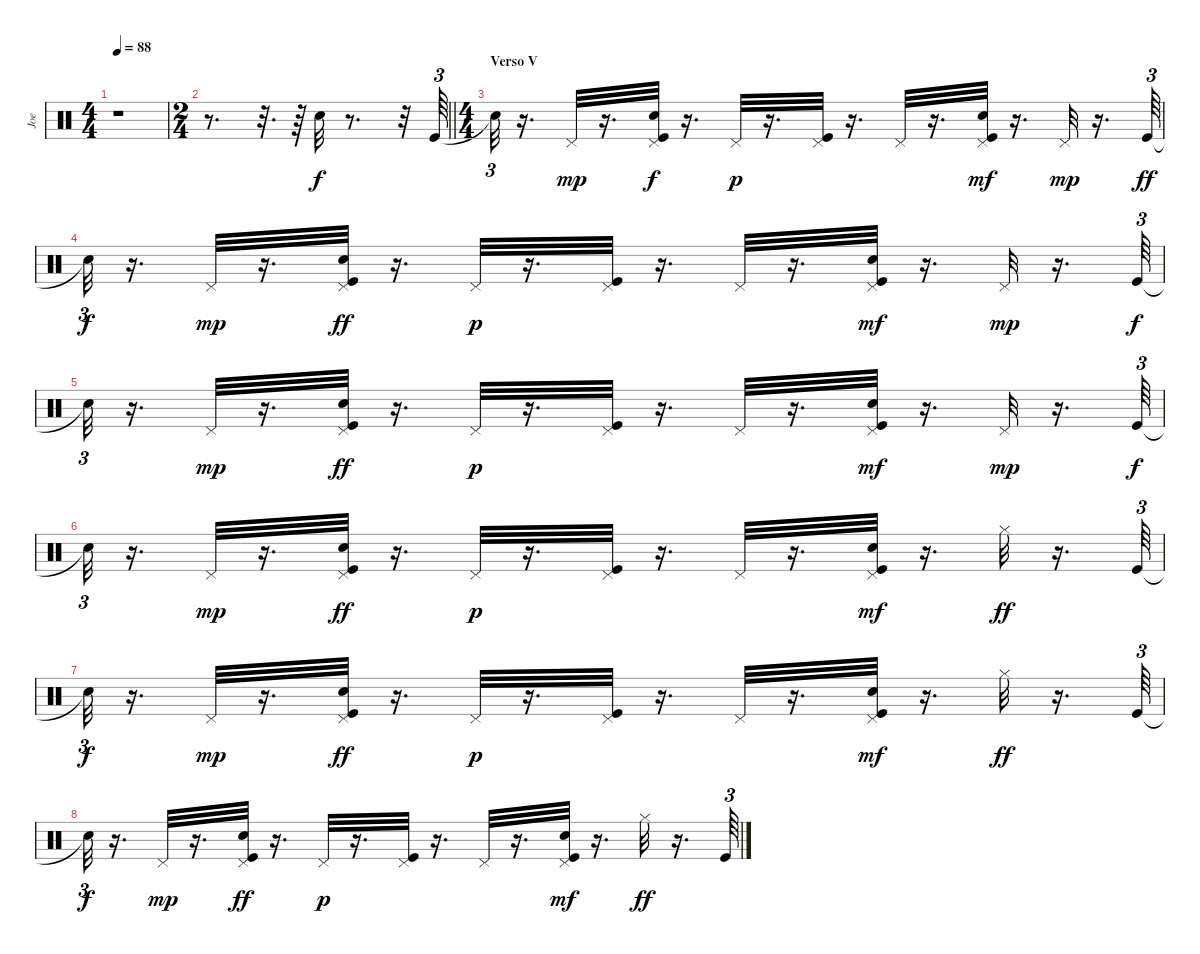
\track ("Joe" "Joe") {instrument percussion}
\staff {score}
\articulation defaults
\ts (4 4)
\tempo 88
\clef neutral
\ks c
r.1{dy f} |
\ts (2 4)
\barLineRight lightlight
r.8{d} r.32{d} r.64 "Electric Snare (hit)".32 r.8{d} r.32 "Kick (hit)".64{tu (3 2)} |
\ts (4 4)
\section ("" "Verso V")
"Snare (hit)"{t}.32{tu (3 2)} r.16{d} "Pedal Hi-Hat (hit)".32{dy mp} r.16{d} ("Pedal Hi-Hat (hit)" "Kick (hit)" "Electric Snare (hit)").32{dy f} r.16{d} "Pedal Hi-Hat (hit)".32{dy p} r.16{d} ("Kick (hit)" "Pedal Hi-Hat (hit)").32 r.16{d} "Pedal Hi-Hat (hit)".32 r.16{d} ("Kick (hit)" "Electric Snare (hit)" "Pedal Hi-Hat (hit)").32{dy mf} r.16{d} "Pedal Hi-Hat (hit)".32{dy mp} r.16{d} "Kick (hit)".64{tu (3 2) dy ff} |
"Snare (hit)"{t}.32{tu (3 2) dy f} r.16{d} "Pedal Hi-Hat (hit)".32{dy mp} r.16{d} ("Pedal Hi-Hat (hit)" "Kick (hit)" "Electric Snare (hit)").32{dy ff} r.16{d} "Pedal Hi-Hat (hit)".32{dy p} r.16{d} ("Kick (hit)" "Pedal Hi-Hat (hit)").32 r.16{d} "Pedal Hi-Hat (hit)".32 r.16{d} ("Kick (hit)" "Electric Snare (hit)" "Pedal Hi-Hat (hit)").32{dy mf} r.16{d} "Pedal Hi-Hat (hit)".32{dy mp} r.16{d} "Kick (hit)".64{tu (3 2) dy f} |
"Snare (hit)"{t}.32{tu (3 2)} r.16{d} "Pedal Hi-Hat (hit)".32{dy mp} r.16{d} ("Pedal Hi-Hat (hit)" "Kick (hit)" "Electric Snare (hit)").32{dy ff} r.16{d} "Pedal Hi-Hat (hit)".32{dy p} r.16{d} ("Kick (hit)" "Pedal Hi-Hat (hit)").32 r.16{d} "Pedal Hi-Hat (hit)".32 r.16{d} ("Kick (hit)" "Electric Snare (hit)" "Pedal Hi-Hat (hit)").32{dy mf} r.16{d} "Pedal Hi-Hat (hit)".32{dy mp} r.16{d} "Kick (hit)".64{tu (3 2) dy f} |
"Snare (hit)"{t}.32{tu (3 2)} r.16{d} "Pedal Hi-Hat (hit)".32{dy mp} r.16{d} ("Pedal Hi-Hat (hit)" "Kick (hit)" "Electric Snare (hit)").32{dy ff} r.16{d} "Pedal Hi-Hat (hit)".32{dy p} r.16{d} ("Kick (hit)" "Pedal Hi-Hat (hit)").32 r.16{d} "Pedal Hi-Hat (hit)".32 r.16{d} ("Kick (hit)" "Electric Snare (hit)" "Pedal Hi-Hat (hit)").32{dy mf} r.16{d} "Hi-Hat (closed)".32{dy ff} r.16{d} "Kick (hit)".64{tu (3 2)} |
"Snare (hit)"{t}.32{tu (3 2) dy f} r.16{d} "Pedal Hi-Hat (hit)".32{dy mp} r.16{d} ("Pedal Hi-Hat (hit)" "Kick (hit)" "Electric Snare (hit)").32{dy ff} r.16{d} "Pedal Hi-Hat (hit)".32{dy p} r.16{d} ("Kick (hit)" "Pedal Hi-Hat (hit)").32 r.16{d} "Pedal Hi-Hat (hit)".32 r.16{d} ("Kick (hit)" "Electric Snare (hit)" "Pedal Hi-Hat (hit)").32{dy mf} r.16{d} "Hi-Hat (closed)".32{dy ff} r.16{d} "Kick (hit)".64{tu (3 2)} |
"Snare (hit)"{t}.32{tu (3 2) dy f} r.16{d} "Pedal Hi-Hat (hit)".32{dy mp} r.16{d} ("Pedal Hi-Hat (hit)" "Kick (hit)" "Electric Snare (hit)").32{dy ff} r.16{d} "Pedal Hi-Hat (hit)".32{dy p} r.16{d} ("Kick (hit)" "Pedal Hi-Hat (hit)").32 r.16{d} "Pedal Hi-Hat (hit)".32 r.16{d} ("Kick (hit)" "Electric Snare (hit)" "Pedal Hi-Hat (hit)").32{dy mf} r.16{d} "Hi-Hat (closed)".32{dy ff} r.16{d} "Kick (hit)".64{tu (3 2)}
